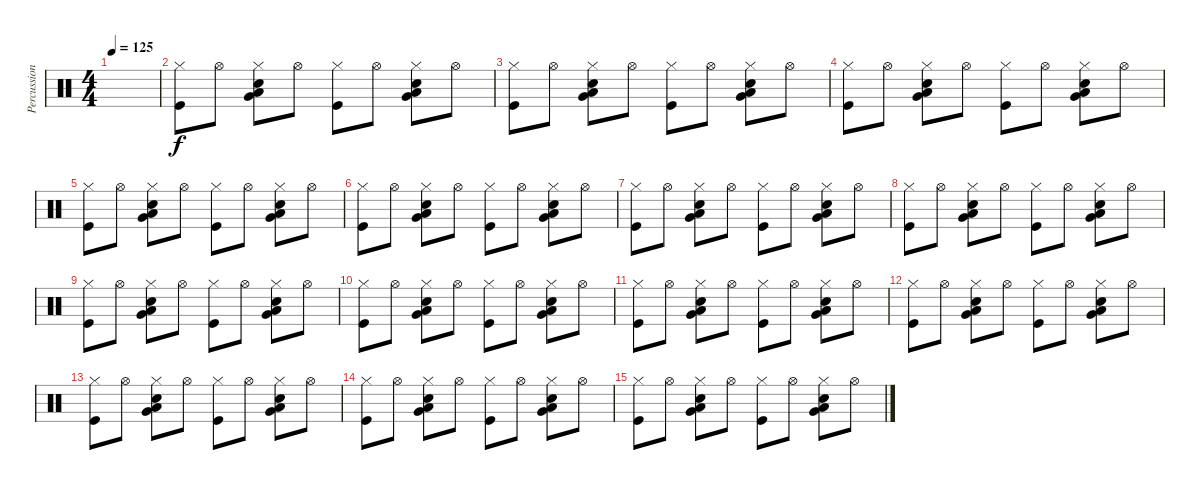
\track ("Percussions" "Percussion") {instrument percussion}
\staff {score}
\articulation defaults
\ts (4 4)
\tempo 125
\clef neutral
\ks c
|
("Hi-Hat (closed)" "Kick (hit)").8 "Hi-Hat (open)".8 ("Hi-Hat (closed)" "Very Low Tom (hit)" "Low Floor Tom (hit)" "Snare (hit) 2").8 "Hi-Hat (open)".8 ("Hi-Hat (closed)" "Kick (hit)").8 "Hi-Hat (open)".8 ("Hi-Hat (closed)" "Very Low Tom (hit)" "Low Floor Tom (hit)" "Snare (hit) 2").8 "Hi-Hat (open)".8 |
("Hi-Hat (closed)" "Kick (hit)").8 "Hi-Hat (open)".8 ("Hi-Hat (closed)" "Very Low Tom (hit)" "Low Floor Tom (hit)" "Snare (hit) 2").8 "Hi-Hat (open)".8 ("Hi-Hat (closed)" "Kick (hit)").8 "Hi-Hat (open)".8 ("Hi-Hat (closed)" "Very Low Tom (hit)" "Low Floor Tom (hit)" "Snare (hit) 2").8 "Hi-Hat (open)".8 |
("Hi-Hat (closed)" "Kick (hit)").8 "Hi-Hat (open)".8 ("Hi-Hat (closed)" "Very Low Tom (hit)" "Low Floor Tom (hit)" "Snare (hit) 2").8 "Hi-Hat (open)".8 ("Hi-Hat (closed)" "Kick (hit)").8 "Hi-Hat (open)".8 ("Hi-Hat (closed)" "Very Low Tom (hit)" "Low Floor Tom (hit)" "Snare (hit) 2").8 "Hi-Hat (open)".8 |
("Hi-Hat (closed)" "Kick (hit)").8 "Hi-Hat (open)".8 ("Hi-Hat (closed)" "Very Low Tom (hit)" "Low Floor Tom (hit)" "Snare (hit) 2").8 "Hi-Hat (open)".8 ("Hi-Hat (closed)" "Kick (hit)").8 "Hi-Hat (open)".8 ("Hi-Hat (closed)" "Very Low Tom (hit)" "Low Floor Tom (hit)" "Snare (hit) 2").8 "Hi-Hat (open)".8 |
("Hi-Hat (closed)" "Kick (hit)").8 "Hi-Hat (open)".8 ("Hi-Hat (closed)" "Very Low Tom (hit)" "Low Floor Tom (hit)" "Snare (hit) 2").8 "Hi-Hat (open)".8 ("Hi-Hat (closed)" "Kick (hit)").8 "Hi-Hat (open)".8 ("Hi-Hat (closed)" "Very Low Tom (hit)" "Low Floor Tom (hit)" "Snare (hit) 2").8 "Hi-Hat (open)".8 |
("Hi-Hat (closed)" "Kick (hit)").8 "Hi-Hat (open)".8 ("Hi-Hat (closed)" "Very Low Tom (hit)" "Low Floor Tom (hit)" "Snare (hit) 2").8 "Hi-Hat (open)".8 ("Hi-Hat (closed)" "Kick (hit)").8 "Hi-Hat (open)".8 ("Hi-Hat (closed)" "Very Low Tom (hit)" "Low Floor Tom (hit)" "Snare (hit) 2").8 "Hi-Hat (open)".8 |
("Hi-Hat (closed)" "Kick (hit)").8 "Hi-Hat (open)".8 ("Hi-Hat (closed)" "Very Low Tom (hit)" "Low Floor Tom (hit)" "Snare (hit) 2").8 "Hi-Hat (open)".8 ("Hi-Hat (closed)" "Kick (hit)").8 "Hi-Hat (open)".8 ("Hi-Hat (closed)" "Very Low Tom (hit)" "Low Floor Tom (hit)" "Snare (hit) 2").8 "Hi-Hat (open)".8 |
("Hi-Hat (closed)" "Kick (hit)").8 "Hi-Hat (open)".8 ("Hi-Hat (closed)" "Very Low Tom (hit)" "Low Floor Tom (hit)" "Snare (hit) 2").8 "Hi-Hat (open)".8 ("Hi-Hat (closed)" "Kick (hit)").8 "Hi-Hat (open)".8 ("Hi-Hat (closed)" "Very Low Tom (hit)" "Low Floor Tom (hit)" "Snare (hit) 2").8 "Hi-Hat (open)".8 |
("Hi-Hat (closed)" "Kick (hit)").8 "Hi-Hat (open)".8 ("Hi-Hat (closed)" "Very Low Tom (hit)" "Low Floor Tom (hit)" "Snare (hit) 2").8 "Hi-Hat (open)".8 ("Hi-Hat (closed)" "Kick (hit)").8 "Hi-Hat (open)".8 ("Hi-Hat (closed)" "Very Low Tom (hit)" "Low Floor Tom (hit)" "Snare (hit) 2").8 "Hi-Hat (open)".8 |
("Hi-Hat (closed)" "Kick (hit)").8 "Hi-Hat (open)".8 ("Hi-Hat (closed)" "Very Low Tom (hit)" "Low Floor Tom (hit)" "Snare (hit) 2").8 "Hi-Hat (open)".8 ("Hi-Hat (closed)" "Kick (hit)").8 "Hi-Hat (open)".8 ("Hi-Hat (closed)" "Very Low Tom (hit)" "Low Floor Tom (hit)" "Snare (hit) 2").8 "Hi-Hat (open)".8 |
("Hi-Hat (closed)" "Kick (hit)").8 "Hi-Hat (open)".8 ("Hi-Hat (closed)" "Very Low Tom (hit)" "Low Floor Tom (hit)" "Snare (hit) 2").8 "Hi-Hat (open)".8 ("Hi-Hat (closed)" "Kick (hit)").8 "Hi-Hat (open)".8 ("Hi-Hat (closed)" "Very Low Tom (hit)" "Low Floor Tom (hit)" "Snare (hit) 2").8 "Hi-Hat (open)".8 |
("Hi-Hat (closed)" "Kick (hit)").8 "Hi-Hat (open)".8 ("Hi-Hat (closed)" "Very Low Tom (hit)" "Low Floor Tom (hit)" "Snare (hit) 2").8 "Hi-Hat (open)".8 ("Hi-Hat (closed)" "Kick (hit)").8 "Hi-Hat (open)".8 ("Hi-Hat (closed)" "Very Low Tom (hit)" "Low Floor Tom (hit)" "Snare (hit) 2").8 "Hi-Hat (open)".8 |
("Hi-Hat (closed)" "Kick (hit)").8 "Hi-Hat (open)".8 ("Hi-Hat (closed)" "Very Low Tom (hit)" "Low Floor Tom (hit)" "Snare (hit) 2").8 "Hi-Hat (open)".8 ("Hi-Hat (closed)" "Kick (hit)").8 "Hi-Hat (open)".8 ("Hi-Hat (closed)" "Very Low Tom (hit)" "Low Floor Tom (hit)" "Snare (hit) 2").8 "Hi-Hat (open)".8 |
("Hi-Hat (closed)" "Kick (hit)").8 "Hi-Hat (open)".8 ("Hi-Hat (closed)" "Very Low Tom (hit)" "Low Floor Tom (hit)" "Snare (hit) 2").8 "Hi-Hat (open)".8 ("Hi-Hat (closed)" "Kick (hit)").8 "Hi-Hat (open)".8 ("Hi-Hat (closed)" "Very Low Tom (hit)" "Low Floor Tom (hit)" "Snare (hit) 2").8 "Hi-Hat (open)".8
